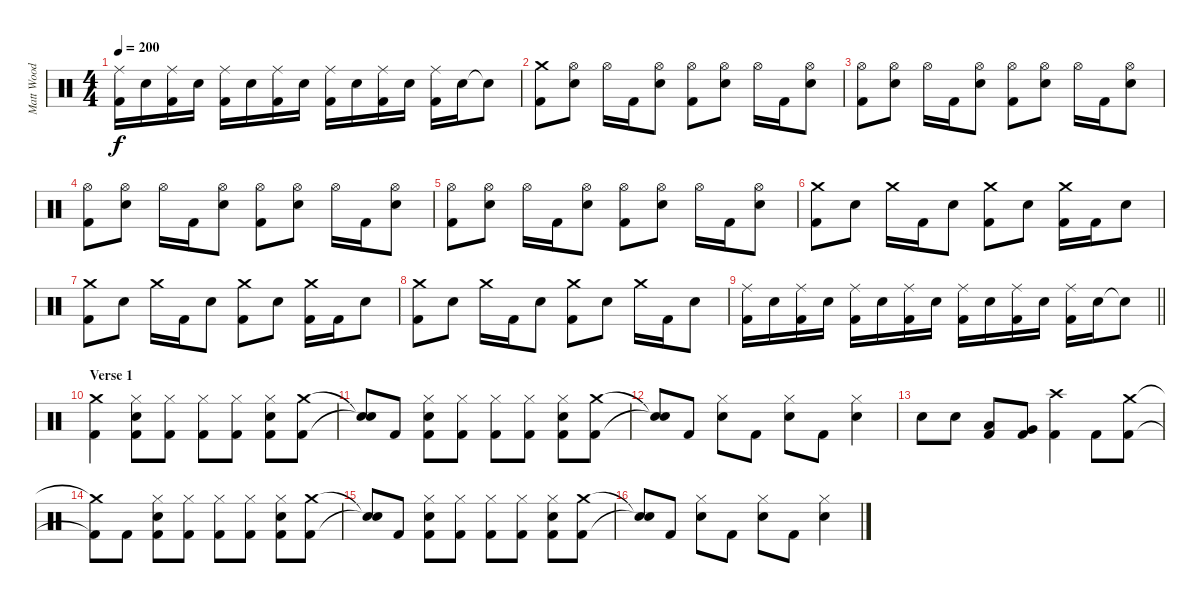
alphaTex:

\track ("Matt Wood" "Matt Wood") {instrument percussion}
\staff {score}
\articulation defaults
\ts (4 4)
\tempo 200
\clef neutral
\ks c
("Ride (middle)" "Kick (hit) 2").16{dy f} "Snare (hit) 2".16 ("Ride (middle)" "Kick (hit) 2").16 "Snare (hit) 2".16 ("Ride (middle)" "Kick (hit) 2").16 "Snare (hit) 2".16 ("Ride (middle)" "Kick (hit) 2").16 "Snare (hit) 2".16 ("Ride (middle)" "Kick (hit) 2").16 "Snare (hit) 2".16 ("Ride (middle)" "Kick (hit) 2").16 "Snare (hit) 2".16 ("Ride (middle)" "Kick (hit) 2").16 "Snare (hit) 2".16 "Snare (hit)"{t}.8 |
("Crash medium (hit)" "Kick (hit) 2").8 ("Hi-Hat (open)" "Snare (hit) 2").8 "Hi-Hat (open)".16 "Kick (hit) 2".16 ("Hi-Hat (open)" "Snare (hit) 2").8 ("Hi-Hat (open)" "Kick (hit) 2").8 ("Hi-Hat (open)" "Snare (hit) 2").8 "Hi-Hat (open)".16 "Kick (hit) 2".16 ("Hi-Hat (open)" "Snare (hit) 2").8 |
("Hi-Hat (open)" "Kick (hit) 2").8 ("Hi-Hat (open)" "Snare (hit) 2").8 "Hi-Hat (open)".16 "Kick (hit) 2".16 ("Hi-Hat (open)" "Snare (hit) 2").8 ("Hi-Hat (open)" "Kick (hit) 2").8 ("Hi-Hat (open)" "Snare (hit) 2").8 "Hi-Hat (open)".16 "Kick (hit) 2".16 ("Hi-Hat (open)" "Snare (hit) 2").8 |
("Hi-Hat (open)" "Kick (hit) 2").8 ("Hi-Hat (open)" "Snare (hit) 2").8 "Hi-Hat (open)".16 "Kick (hit) 2".16 ("Hi-Hat (open)" "Snare (hit) 2").8 ("Hi-Hat (open)" "Kick (hit) 2").8 ("Hi-Hat (open)" "Snare (hit) 2").8 "Hi-Hat (open)".16 "Kick (hit) 2".16 ("Hi-Hat (open)" "Snare (hit) 2").8 |
("Hi-Hat (open)" "Kick (hit) 2").8 ("Hi-Hat (open)" "Snare (hit) 2").8 "Hi-Hat (open)".16 "Kick (hit) 2".16 ("Hi-Hat (open)" "Snare (hit) 2").8 ("Hi-Hat (open)" "Kick (hit) 2").8 ("Hi-Hat (open)" "Snare (hit) 2").8 "Hi-Hat (open)".16 "Kick (hit) 2".16 ("Hi-Hat (open)" "Snare (hit) 2").8 |
("Crash medium (hit)" "Kick (hit) 2").8 "Snare (hit) 2".8 "Crash medium (hit)".16 "Kick (hit) 2".16 "Snare (hit) 2".8 ("Crash medium (hit)" "Kick (hit) 2").8 "Snare (hit) 2".8 ("Crash medium (hit)" "Kick (hit) 2").16 "Kick (hit) 2".16 "Snare (hit) 2".8 |
("Crash medium (hit)" "Kick (hit) 2").8 "Snare (hit) 2".8 "Crash medium (hit)".16 "Kick (hit) 2".16 "Snare (hit) 2".8 ("Crash medium (hit)" "Kick (hit) 2").8 "Snare (hit) 2".8 ("Crash medium (hit)" "Kick (hit) 2").16 "Kick (hit) 2".16 "Snare (hit) 2".8 |
("Crash medium (hit)" "Kick (hit) 2").8 "Snare (hit) 2".8 "Crash medium (hit)".16 "Kick (hit) 2".16 "Snare (hit) 2".8 ("Crash medium (hit)" "Kick (hit) 2").8 "Snare (hit) 2".8 "Crash medium (hit)".16 "Kick (hit) 2".16 "Snare (hit) 2".8 |
\barLineRight lightlight
("Ride (middle)" "Kick (hit) 2").16 "Snare (hit) 2".16 ("Ride (middle)" "Kick (hit) 2").16 "Snare (hit) 2".16 ("Ride (middle)" "Kick (hit) 2").16 "Snare (hit) 2".16 ("Ride (middle)" "Kick (hit) 2").16 "Snare (hit) 2".16 ("Ride (middle)" "Kick (hit) 2").16 "Snare (hit) 2".16 ("Ride (middle)" "Kick (hit) 2").16 "Snare (hit) 2".16 ("Ride (middle)" "Kick (hit) 2").16 "Snare (hit) 2".16 "Snare (hit)"{t}.8 |
\section ("" "Verse 1")
("Crash medium (hit)" "Kick (hit) 2").4 ("Hi-Hat (closed)" "Snare (hit) 2" "Kick (hit) 2").8 ("Hi-Hat (closed)" "Kick (hit) 2").8 ("Hi-Hat (closed)" "Kick (hit) 2").8 ("Hi-Hat (closed)" "Kick (hit) 2").8 ("Hi-Hat (closed)" "Snare (hit) 2" "Kick (hit) 2").8 ("Crash medium (hit)" "Kick (hit) 2").8 |
("Snare (hit)"{t} "Snare (hit)"{t}).8 "Kick (hit) 2".8 ("Hi-Hat (closed)" "Snare (hit) 2" "Kick (hit) 2").8 ("Hi-Hat (closed)" "Kick (hit) 2").8 ("Hi-Hat (closed)" "Kick (hit) 2").8 ("Hi-Hat (closed)" "Kick (hit) 2").8 ("Hi-Hat (closed)" "Snare (hit) 2" "Kick (hit) 2").8 ("Crash medium (hit)" "Kick (hit) 2").8 |
("Snare (hit)"{t} "Snare (hit)"{t}).8 "Kick (hit) 2".8 ("Hi-Hat (closed)" "Snare (hit) 2").8 "Kick (hit) 2".8 ("Hi-Hat (closed)" "Snare (hit) 2").8 "Kick (hit) 2".8 ("Hi-Hat (closed)" "Snare (hit) 2").4 |
"Snare (hit) 2".8 "Snare (hit) 2".8 ("Low Tom (hit)" "Kick (hit) 2").8 ("Very Low Tom (hit)" "Kick (hit) 2").8 ("Crash high (hit)" "Kick (hit) 2").4 "Kick (hit) 2".8 ("Crash medium (hit)" "Kick (hit) 2").8 |
("Crash medium (hit)"{t} "Kick (hit) 2"{t}).8 "Kick (hit) 2".8 ("Hi-Hat (closed)" "Snare (hit) 2" "Kick (hit) 2").8 ("Hi-Hat (closed)" "Kick (hit) 2").8 ("Hi-Hat (closed)" "Kick (hit) 2").8 ("Hi-Hat (closed)" "Kick (hit) 2").8 ("Hi-Hat (closed)" "Snare (hit) 2" "Kick (hit) 2").8 ("Crash medium (hit)" "Kick (hit) 2").8 |
("Snare (hit)"{t} "Snare (hit)"{t}).8 "Kick (hit) 2".8 ("Hi-Hat (closed)" "Snare (hit) 2" "Kick (hit) 2").8 ("Hi-Hat (closed)" "Kick (hit) 2").8 ("Hi-Hat (closed)" "Kick (hit) 2").8 ("Hi-Hat (closed)" "Kick (hit) 2").8 ("Hi-Hat (closed)" "Snare (hit) 2" "Kick (hit) 2").8 ("Crash medium (hit)" "Kick (hit) 2").8 |
("Snare (hit)"{t} "Snare (hit)"{t}).8 "Kick (hit) 2".8 ("Hi-Hat (closed)" "Snare (hit) 2").8 "Kick (hit) 2".8 ("Hi-Hat (closed)" "Snare (hit) 2").8 "Kick (hit) 2".8 ("Hi-Hat (closed)" "Snare (hit) 2").4
